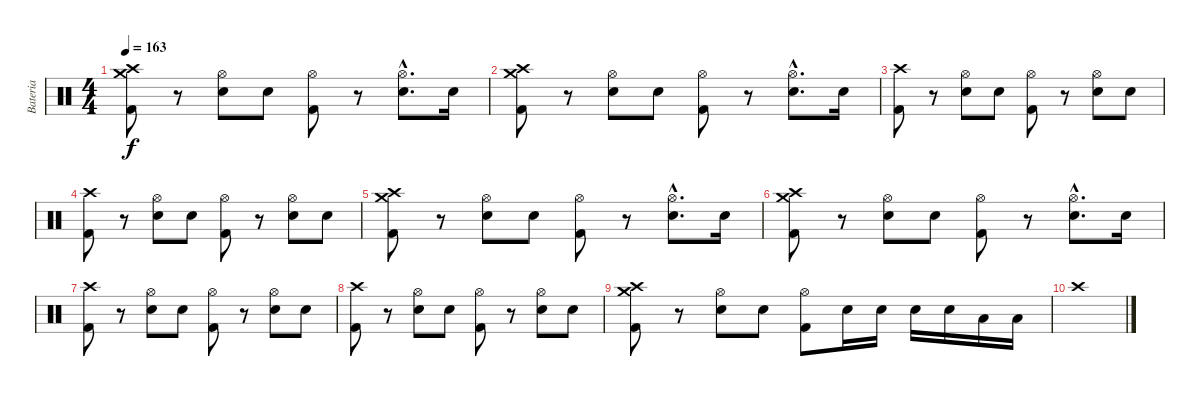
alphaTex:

\track ("Bateria" "Bateria") {instrument percussion}
\staff {score}
\articulation defaults
\ts (4 4)
\tempo 163
\clef neutral
\ks c
("Crash high (hit)" "Crash medium (hit)" "Kick (hit) 2").8{dy f} r.8 ("Hi-Hat (open)" "Snare (hit) 2").8 "Snare (hit) 2".8 ("Hi-Hat (open)" "Kick (hit) 2").8 r.8 ("Hi-Hat (open)"{hac} "Snare (hit) 2"{hac}).8{d} "Snare (hit) 2".16 |
("Crash high (hit)" "Crash medium (hit)" "Kick (hit) 2").8 r.8 ("Hi-Hat (open)" "Snare (hit) 2").8 "Snare (hit) 2".8 ("Hi-Hat (open)" "Kick (hit) 2").8 r.8 ("Hi-Hat (open)"{hac} "Snare (hit) 2"{hac}).8{d} "Snare (hit) 2".16 |
("Crash high (hit)" "Kick (hit) 2").8 r.8 ("Hi-Hat (open)" "Snare (hit) 2").8 "Snare (hit) 2".8 ("Hi-Hat (open)" "Kick (hit) 2").8 r.8 ("Hi-Hat (open)" "Snare (hit) 2").8 "Snare (hit) 2".8 |
("Crash high (hit)" "Kick (hit) 2").8 r.8 ("Hi-Hat (open)" "Snare (hit) 2").8 "Snare (hit) 2".8 ("Hi-Hat (open)" "Kick (hit) 2").8 r.8 ("Hi-Hat (open)" "Snare (hit) 2").8 "Snare (hit) 2".8 |
("Crash high (hit)" "Crash medium (hit)" "Kick (hit) 2").8 r.8 ("Hi-Hat (open)" "Snare (hit) 2").8 "Snare (hit) 2".8 ("Hi-Hat (open)" "Kick (hit) 2").8 r.8 ("Hi-Hat (open)"{hac} "Snare (hit) 2"{hac}).8{d} "Snare (hit) 2".16 |
("Crash high (hit)" "Crash medium (hit)" "Kick (hit) 2").8 r.8 ("Hi-Hat (open)" "Snare (hit) 2").8 "Snare (hit) 2".8 ("Hi-Hat (open)" "Kick (hit) 2").8 r.8 ("Hi-Hat (open)"{hac} "Snare (hit) 2"{hac}).8{d} "Snare (hit) 2".16 |
("Crash high (hit)" "Kick (hit) 2").8 r.8 ("Hi-Hat (open)" "Snare (hit) 2").8 "Snare (hit) 2".8 ("Hi-Hat (open)" "Kick (hit) 2").8 r.8 ("Hi-Hat (open)" "Snare (hit) 2").8 "Snare (hit) 2".8 |
("Crash high (hit)" "Kick (hit) 2").8 r.8 ("Hi-Hat (open)" "Snare (hit) 2").8 "Snare (hit) 2".8 ("Hi-Hat (open)" "Kick (hit) 2").8 r.8 ("Hi-Hat (open)" "Snare (hit) 2").8 "Snare (hit) 2".8 |
("Crash high (hit)" "Crash medium (hit)" "Kick (hit) 2").8 r.8 ("Hi-Hat (open)" "Snare (hit) 2").8 "Snare (hit) 2".8 ("Hi-Hat (open)" "Kick (hit) 2").8 "Snare (hit) 2".16 "Snare (hit) 2".16 "Snare (hit) 2".16 "Snare (hit) 2".16 "Low Tom (hit)".16 "Low Tom (hit)".16 |
"Crash high (hit)".1
